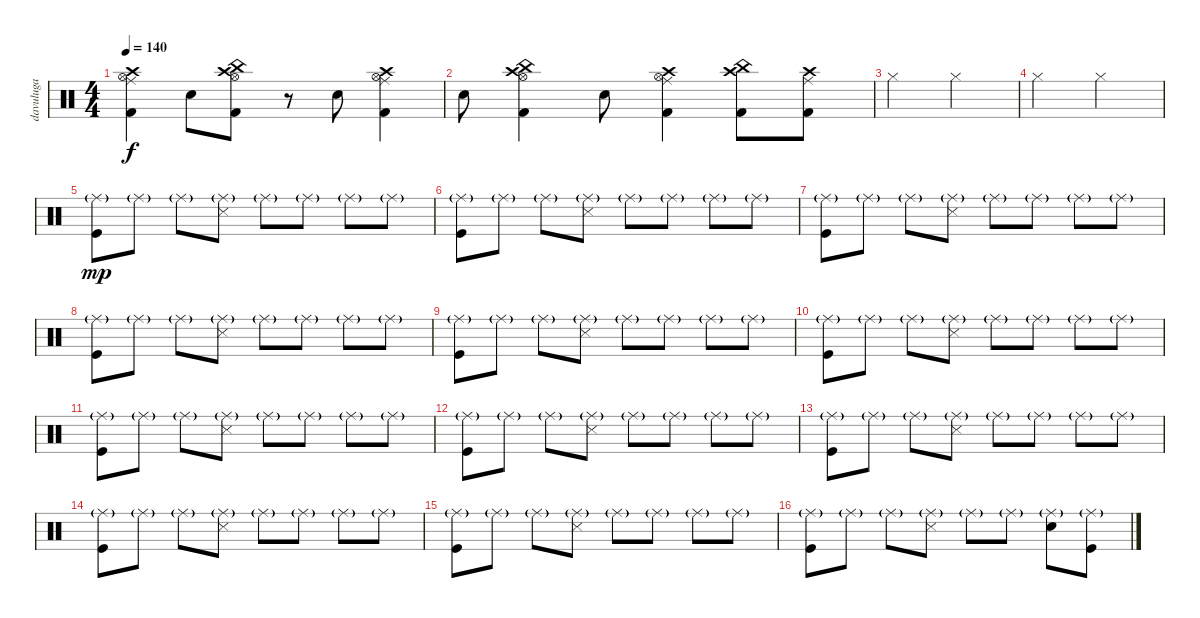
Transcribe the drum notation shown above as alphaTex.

\track ("davuluga" "davuluga") {instrument percussion}
\staff {score}
\articulation defaults
\ts (4 4)
\tempo 140
\clef neutral
\ks c
("Ride (middle)" "Crash high (hit)" "Hi-Hat (open)" "Kick (hit) 2").4{dy f} "Electric Snare (hit)".8 ("China (hit)" "Crash high (hit)" "Hi-Hat (open)" "Kick (hit) 2").8 r.8 "Electric Snare (hit)".8 ("Ride (middle)" "Crash high (hit)" "Hi-Hat (open)" "Kick (hit) 2").4 |
"Electric Snare (hit)".8 ("China (hit)" "Crash high (hit)" "Hi-Hat (open)" "Kick (hit) 2").4 "Electric Snare (hit)".8 ("Ride (middle)" "Crash high (hit)" "Hi-Hat (open)" "Kick (hit) 2").4 ("China (hit)" "Crash high (hit)" "Kick (hit) 2").8 ("Ride (middle)" "Crash high (hit)" "Kick (hit) 2").8 |
"Hi-Hat (closed)".2 "Hi-Hat (closed)".2 |
"Hi-Hat (closed)".2 "Hi-Hat (closed)".2 |
("Ride (middle)"{g} "Kick (hit)").8{dy mp} "Ride (middle)"{g}.8 "Ride (middle)"{g}.8 ("Ride (middle)"{g} "Snare (side stick) 3").8 "Ride (middle)"{g}.8 "Ride (middle)"{g}.8 "Ride (middle)"{g}.8 "Ride (middle)"{g}.8 |
("Ride (middle)"{g} "Kick (hit)").8 "Ride (middle)"{g}.8 "Ride (middle)"{g}.8 ("Ride (middle)"{g} "Snare (side stick) 3").8 "Ride (middle)"{g}.8 "Ride (middle)"{g}.8 "Ride (middle)"{g}.8 "Ride (middle)"{g}.8 |
("Ride (middle)"{g} "Kick (hit)").8 "Ride (middle)"{g}.8 "Ride (middle)"{g}.8 ("Ride (middle)"{g} "Snare (side stick) 3").8 "Ride (middle)"{g}.8 "Ride (middle)"{g}.8 "Ride (middle)"{g}.8 "Ride (middle)"{g}.8 |
("Ride (middle)"{g} "Kick (hit)").8 "Ride (middle)"{g}.8 "Ride (middle)"{g}.8 ("Ride (middle)"{g} "Snare (side stick) 3").8 "Ride (middle)"{g}.8 "Ride (middle)"{g}.8 "Ride (middle)"{g}.8 "Ride (middle)"{g}.8 |
("Ride (middle)"{g} "Kick (hit)").8 "Ride (middle)"{g}.8 "Ride (middle)"{g}.8 ("Ride (middle)"{g} "Snare (side stick) 3").8 "Ride (middle)"{g}.8 "Ride (middle)"{g}.8 "Ride (middle)"{g}.8 "Ride (middle)"{g}.8 |
("Ride (middle)"{g} "Kick (hit)").8 "Ride (middle)"{g}.8 "Ride (middle)"{g}.8 ("Ride (middle)"{g} "Snare (side stick) 3").8 "Ride (middle)"{g}.8 "Ride (middle)"{g}.8 "Ride (middle)"{g}.8 "Ride (middle)"{g}.8 |
("Ride (middle)"{g} "Kick (hit)").8 "Ride (middle)"{g}.8 "Ride (middle)"{g}.8 ("Ride (middle)"{g} "Snare (side stick) 3").8 "Ride (middle)"{g}.8 "Ride (middle)"{g}.8 "Ride (middle)"{g}.8 "Ride (middle)"{g}.8 |
("Ride (middle)"{g} "Kick (hit)").8 "Ride (middle)"{g}.8 "Ride (middle)"{g}.8 ("Ride (middle)"{g} "Snare (side stick) 3").8 "Ride (middle)"{g}.8 "Ride (middle)"{g}.8 "Ride (middle)"{g}.8 "Ride (middle)"{g}.8 |
("Ride (middle)"{g} "Kick (hit)").8 "Ride (middle)"{g}.8 "Ride (middle)"{g}.8 ("Ride (middle)"{g} "Snare (side stick) 3").8 "Ride (middle)"{g}.8 "Ride (middle)"{g}.8 "Ride (middle)"{g}.8 "Ride (middle)"{g}.8 |
("Ride (middle)"{g} "Kick (hit)").8 "Ride (middle)"{g}.8 "Ride (middle)"{g}.8 ("Ride (middle)"{g} "Snare (side stick) 3").8 "Ride (middle)"{g}.8 "Ride (middle)"{g}.8 "Ride (middle)"{g}.8 "Ride (middle)"{g}.8 |
("Ride (middle)"{g} "Kick (hit)").8 "Ride (middle)"{g}.8 "Ride (middle)"{g}.8 ("Ride (middle)"{g} "Snare (side stick) 3").8 "Ride (middle)"{g}.8 "Ride (middle)"{g}.8 "Ride (middle)"{g}.8 "Ride (middle)"{g}.8 |
("Ride (middle)"{g} "Kick (hit)").8 "Ride (middle)"{g}.8 "Ride (middle)"{g}.8 ("Ride (middle)"{g} "Snare (side stick) 3").8 "Ride (middle)"{g}.8 "Ride (middle)"{g}.8 ("Ride (middle)"{g} "Electric Snare (hit)").8 ("Ride (middle)"{g} "Kick (hit)").8
